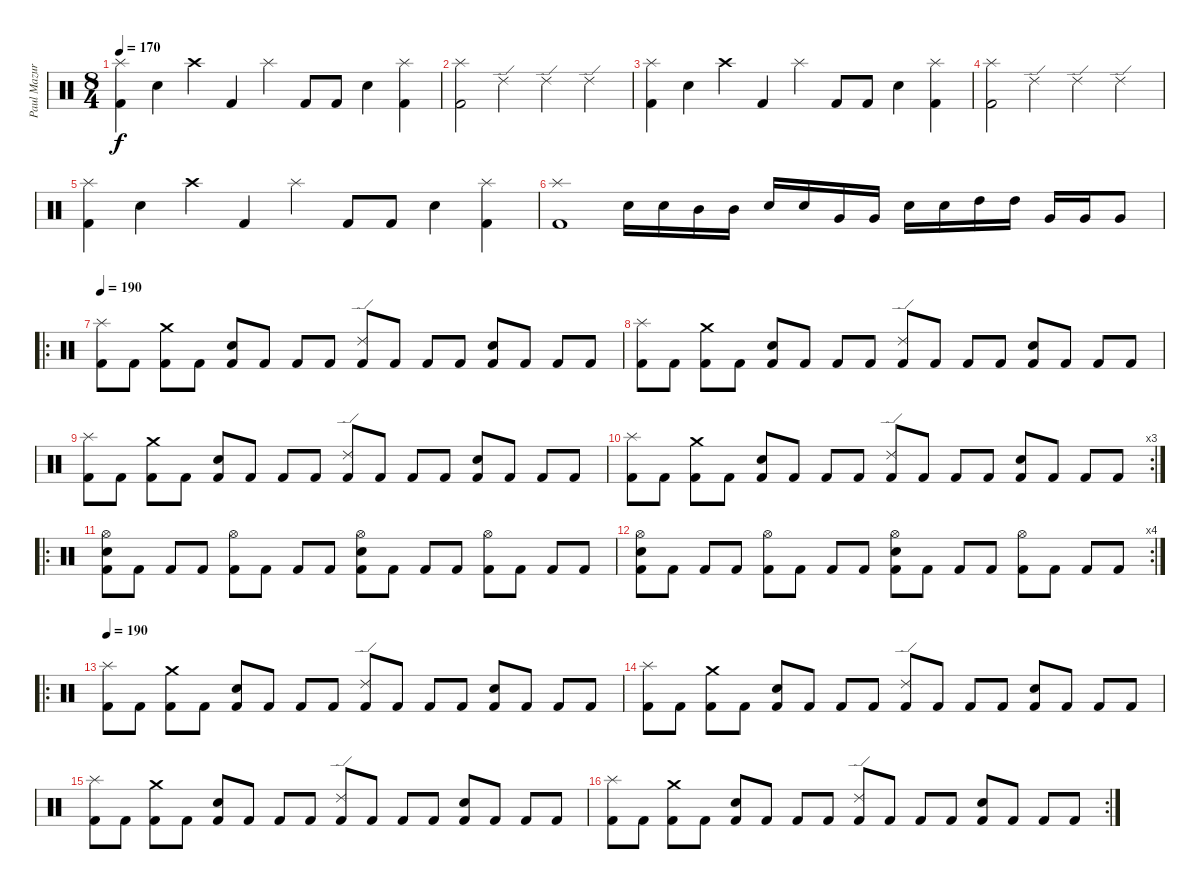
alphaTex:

\track ("Paul Mazurkiewicz" "Paul Mazur") {instrument percussion}
\staff {score}
\articulation defaults
\ts (8 4)
\tempo 170
\clef neutral
\ks c
("Splash (hit)" "Kick (hit) 2").4{dy f} "Snare (hit) 2".4 "Crash high (hit)".4 "Kick (hit) 2".4 "Splash (hit)".4 "Kick (hit) 2".8 "Kick (hit) 2".8 "Snare (hit) 2".4 ("Splash (hit)" "Kick (hit) 2").4 |
("Splash (hit)" "Kick (hit) 2").2 "Ride (edge) 2".2 "Ride (edge) 2".2 "Ride (edge) 2".2 |
("Splash (hit)" "Kick (hit) 2").4 "Snare (hit) 2".4 "Crash high (hit)".4 "Kick (hit) 2".4 "Splash (hit)".4 "Kick (hit) 2".8 "Kick (hit) 2".8 "Snare (hit) 2".4 ("Splash (hit)" "Kick (hit) 2").4 |
("Splash (hit)" "Kick (hit) 2").2 "Ride (edge) 2".2 "Ride (edge) 2".2 "Ride (edge) 2".2 |
("Splash (hit)" "Kick (hit) 2").4 "Snare (hit) 2".4 "Crash high (hit)".4 "Kick (hit) 2".4 "Splash (hit)".4 "Kick (hit) 2".8 "Kick (hit) 2".8 "Snare (hit) 2".4 ("Splash (hit)" "Kick (hit) 2").4 |
("Splash (hit)" "Kick (hit) 2").1 "Snare (hit) 2".16 "Snare (hit) 2".16 "Mid Tom (hit)".16 "Mid Tom (hit)".16 "Snare (hit) 2".16 "Snare (hit) 2".16 "Very Low Tom (hit)".16 "Very Low Tom (hit)".16 "Snare (hit) 2".16 "Snare (hit) 2".16 "High Tom (hit)".16 "High Tom (hit)".16 "Very Low Tom (hit)".16 "Very Low Tom (hit)".16 "Very Low Tom (hit)".8 |
\ro
\tempo 190
("Splash (hit)" "Kick (hit) 2").8 "Kick (hit) 2".8 ("Crash medium (hit)" "Kick (hit) 2").8 "Kick (hit) 2".8 ("Snare (hit) 2" "Kick (hit) 2").8 "Kick (hit) 2".8 "Kick (hit) 2".8 "Kick (hit) 2".8 ("Ride (edge) 2" "Kick (hit) 2").8 "Kick (hit) 2".8 "Kick (hit) 2".8 "Kick (hit) 2".8 ("Snare (hit) 2" "Kick (hit) 2").8 "Kick (hit) 2".8 "Kick (hit) 2".8 "Kick (hit) 2".8 |
("Splash (hit)" "Kick (hit) 2").8 "Kick (hit) 2".8 ("Crash medium (hit)" "Kick (hit) 2").8 "Kick (hit) 2".8 ("Snare (hit) 2" "Kick (hit) 2").8 "Kick (hit) 2".8 "Kick (hit) 2".8 "Kick (hit) 2".8 ("Ride (edge) 2" "Kick (hit) 2").8 "Kick (hit) 2".8 "Kick (hit) 2".8 "Kick (hit) 2".8 ("Snare (hit) 2" "Kick (hit) 2").8 "Kick (hit) 2".8 "Kick (hit) 2".8 "Kick (hit) 2".8 |
("Splash (hit)" "Kick (hit) 2").8 "Kick (hit) 2".8 ("Crash medium (hit)" "Kick (hit) 2").8 "Kick (hit) 2".8 ("Snare (hit) 2" "Kick (hit) 2").8 "Kick (hit) 2".8 "Kick (hit) 2".8 "Kick (hit) 2".8 ("Ride (edge) 2" "Kick (hit) 2").8 "Kick (hit) 2".8 "Kick (hit) 2".8 "Kick (hit) 2".8 ("Snare (hit) 2" "Kick (hit) 2").8 "Kick (hit) 2".8 "Kick (hit) 2".8 "Kick (hit) 2".8 |
\rc 3
("Splash (hit)" "Kick (hit) 2").8 "Kick (hit) 2".8 ("Crash medium (hit)" "Kick (hit) 2").8 "Kick (hit) 2".8 ("Snare (hit) 2" "Kick (hit) 2").8 "Kick (hit) 2".8 "Kick (hit) 2".8 "Kick (hit) 2".8 ("Ride (edge) 2" "Kick (hit) 2").8 "Kick (hit) 2".8 "Kick (hit) 2".8 "Kick (hit) 2".8 ("Snare (hit) 2" "Kick (hit) 2").8 "Kick (hit) 2".8 "Kick (hit) 2".8 "Kick (hit) 2".8 |
\ro
("Hi-Hat (open)" "Snare (hit) 2" "Kick (hit) 2").8 "Kick (hit) 2".8 "Kick (hit) 2".8 "Kick (hit) 2".8 ("Hi-Hat (open)" "Kick (hit) 2").8 "Kick (hit) 2".8 "Kick (hit) 2".8 "Kick (hit) 2".8 ("Hi-Hat (open)" "Snare (hit) 2" "Kick (hit) 2").8 "Kick (hit) 2".8 "Kick (hit) 2".8 "Kick (hit) 2".8 ("Hi-Hat (open)" "Kick (hit) 2").8 "Kick (hit) 2".8 "Kick (hit) 2".8 "Kick (hit) 2".8 |
\rc 4
("Hi-Hat (open)" "Snare (hit) 2" "Kick (hit) 2").8 "Kick (hit) 2".8 "Kick (hit) 2".8 "Kick (hit) 2".8 ("Hi-Hat (open)" "Kick (hit) 2").8 "Kick (hit) 2".8 "Kick (hit) 2".8 "Kick (hit) 2".8 ("Hi-Hat (open)" "Snare (hit) 2" "Kick (hit) 2").8 "Kick (hit) 2".8 "Kick (hit) 2".8 "Kick (hit) 2".8 ("Hi-Hat (open)" "Kick (hit) 2").8 "Kick (hit) 2".8 "Kick (hit) 2".8 "Kick (hit) 2".8 |
\ro
\tempo 190
("Splash (hit)" "Kick (hit) 2").8 "Kick (hit) 2".8 ("Crash medium (hit)" "Kick (hit) 2").8 "Kick (hit) 2".8 ("Snare (hit) 2" "Kick (hit) 2").8 "Kick (hit) 2".8 "Kick (hit) 2".8 "Kick (hit) 2".8 ("Ride (edge) 2" "Kick (hit) 2").8 "Kick (hit) 2".8 "Kick (hit) 2".8 "Kick (hit) 2".8 ("Snare (hit) 2" "Kick (hit) 2").8 "Kick (hit) 2".8 "Kick (hit) 2".8 "Kick (hit) 2".8 |
("Splash (hit)" "Kick (hit) 2").8 "Kick (hit) 2".8 ("Crash medium (hit)" "Kick (hit) 2").8 "Kick (hit) 2".8 ("Snare (hit) 2" "Kick (hit) 2").8 "Kick (hit) 2".8 "Kick (hit) 2".8 "Kick (hit) 2".8 ("Ride (edge) 2" "Kick (hit) 2").8 "Kick (hit) 2".8 "Kick (hit) 2".8 "Kick (hit) 2".8 ("Snare (hit) 2" "Kick (hit) 2").8 "Kick (hit) 2".8 "Kick (hit) 2".8 "Kick (hit) 2".8 |
("Splash (hit)" "Kick (hit) 2").8 "Kick (hit) 2".8 ("Crash medium (hit)" "Kick (hit) 2").8 "Kick (hit) 2".8 ("Snare (hit) 2" "Kick (hit) 2").8 "Kick (hit) 2".8 "Kick (hit) 2".8 "Kick (hit) 2".8 ("Ride (edge) 2" "Kick (hit) 2").8 "Kick (hit) 2".8 "Kick (hit) 2".8 "Kick (hit) 2".8 ("Snare (hit) 2" "Kick (hit) 2").8 "Kick (hit) 2".8 "Kick (hit) 2".8 "Kick (hit) 2".8 |
\rc 2
("Splash (hit)" "Kick (hit) 2").8 "Kick (hit) 2".8 ("Crash medium (hit)" "Kick (hit) 2").8 "Kick (hit) 2".8 ("Snare (hit) 2" "Kick (hit) 2").8 "Kick (hit) 2".8 "Kick (hit) 2".8 "Kick (hit) 2".8 ("Ride (edge) 2" "Kick (hit) 2").8 "Kick (hit) 2".8 "Kick (hit) 2".8 "Kick (hit) 2".8 ("Snare (hit) 2" "Kick (hit) 2").8 "Kick (hit) 2".8 "Kick (hit) 2".8 "Kick (hit) 2".8
